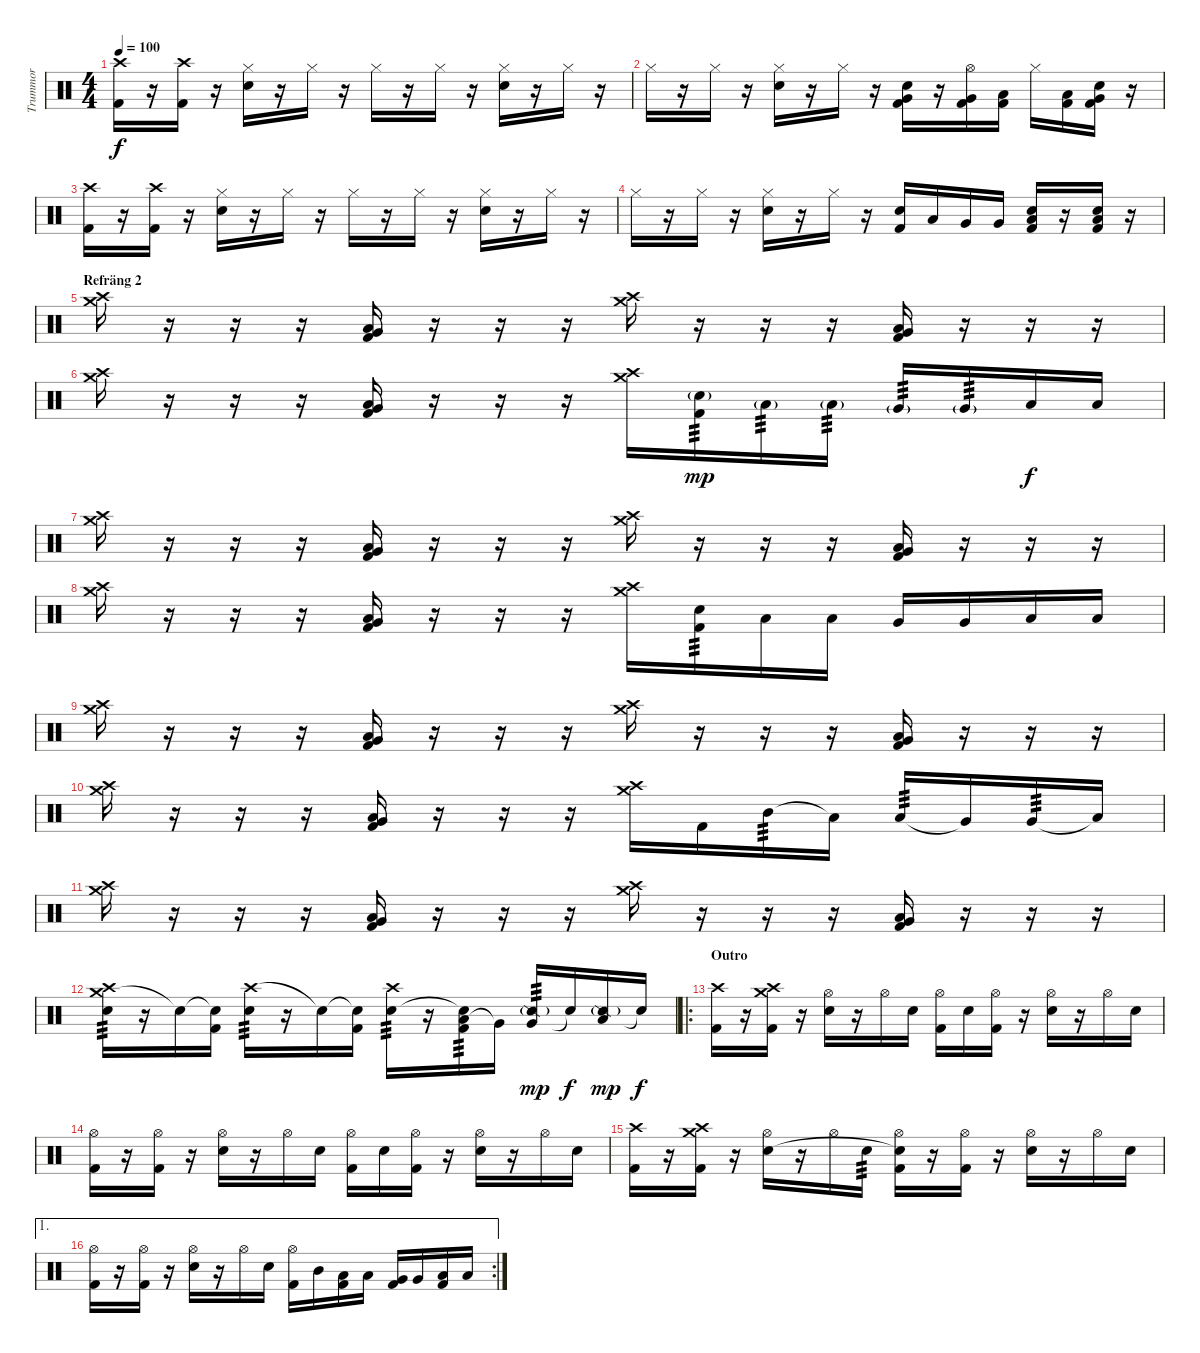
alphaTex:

\track ("Trummor" "Trummor") {instrument percussion}
\staff {score}
\articulation defaults
\ts (4 4)
\tempo 100
\clef neutral
\ks c
("Crash high (hit)" "Kick (hit) 2").16{dy f} r.16 ("Crash high (hit)" "Kick (hit) 2").16 r.16 ("Hi-Hat (closed)" "Snare (hit) 2").16 r.16 "Hi-Hat (closed)".16 r.16 "Hi-Hat (closed)".16 r.16 "Hi-Hat (closed)".16 r.16 ("Hi-Hat (closed)" "Snare (hit) 2").16 r.16 "Hi-Hat (closed)".16 r.16 |
"Hi-Hat (closed)".16 r.16 "Hi-Hat (closed)".16 r.16 ("Hi-Hat (closed)" "Snare (hit) 2").16 r.16 "Hi-Hat (closed)".16 r.16 ("Snare (hit) 2" "Very Low Tom (hit)" "Kick (hit) 2").16 r.16 ("Hi-Hat (open)" "Very Low Tom (hit)" "Kick (hit) 2").16 ("Low Floor Tom (hit)" "Kick (hit) 2").16 "Hi-Hat (closed)".16 ("Low Floor Tom (hit)" "Kick (hit) 2").16 ("Snare (hit) 2" "Very Low Tom (hit)" "Kick (hit) 2").16 r.16 |
("Crash high (hit)" "Kick (hit) 2").16 r.16 ("Crash high (hit)" "Kick (hit) 2").16 r.16 ("Hi-Hat (closed)" "Snare (hit) 2").16 r.16 "Hi-Hat (closed)".16 r.16 "Hi-Hat (closed)".16 r.16 "Hi-Hat (closed)".16 r.16 ("Hi-Hat (closed)" "Snare (hit) 2").16 r.16 "Hi-Hat (closed)".16 r.16 |
"Hi-Hat (closed)".16 r.16 "Hi-Hat (closed)".16 r.16 ("Hi-Hat (closed)" "Snare (hit) 2").16 r.16 "Hi-Hat (closed)".16 r.16 ("Snare (hit) 2" "Kick (hit) 2").16 "Low Tom (hit)".16 "Very Low Tom (hit)".16 "Very Low Tom (hit)".16 ("Snare (hit) 2" "Low Floor Tom (hit)" "Kick (hit) 2").16 r.16 ("Snare (hit) 2" "Low Floor Tom (hit)" "Kick (hit) 2").16 r.16 |
\section ("" "Refräng 2")
("Crash medium (hit)" "Crash high (hit)").16 r.16 r.16 r.16 ("Very Low Tom (hit)" "Low Floor Tom (hit)" "Kick (hit) 2").16 r.16 r.16 r.16 ("Crash medium (hit)" "Crash high (hit)").16 r.16 r.16 r.16 ("Very Low Tom (hit)" "Low Floor Tom (hit)" "Kick (hit) 2").16 r.16 r.16 r.16 |
("Crash medium (hit)" "Crash high (hit)").16 r.16 r.16 r.16 ("Very Low Tom (hit)" "Low Floor Tom (hit)" "Kick (hit) 2").16 r.16 r.16 r.16 ("Crash medium (hit)" "Crash high (hit)").16 ("Snare (hit) 2"{g} "Kick (hit) 2").16{tp 3 dy mp} "Low Tom (hit)"{g}.16{tp 3} "Low Tom (hit)"{g}.16{tp 3} "Very Low Tom (hit)"{g}.16{tp 3} "Very Low Tom (hit)"{g}.16{tp 3} "Low Floor Tom (hit)".16{dy f} "Low Floor Tom (hit)".16 |
("Crash medium (hit)" "Crash high (hit)").16 r.16 r.16 r.16 ("Very Low Tom (hit)" "Low Floor Tom (hit)" "Kick (hit) 2").16 r.16 r.16 r.16 ("Crash medium (hit)" "Crash high (hit)").16 r.16 r.16 r.16 ("Very Low Tom (hit)" "Low Floor Tom (hit)" "Kick (hit) 2").16 r.16 r.16 r.16 |
("Crash medium (hit)" "Crash high (hit)").16 r.16 r.16 r.16 ("Very Low Tom (hit)" "Low Floor Tom (hit)" "Kick (hit) 2").16 r.16 r.16 r.16 ("Crash medium (hit)" "Crash high (hit)").16 ("Snare (hit) 2" "Kick (hit) 2").16{tp 3} "Low Tom (hit)".16 "Low Tom (hit)".16 "Very Low Tom (hit)".16 "Very Low Tom (hit)".16 "Low Floor Tom (hit)".16 "Low Floor Tom (hit)".16 |
("Crash medium (hit)" "Crash high (hit)").16 r.16 r.16 r.16 ("Very Low Tom (hit)" "Low Floor Tom (hit)" "Kick (hit) 2").16 r.16 r.16 r.16 ("Crash medium (hit)" "Crash high (hit)").16 r.16 r.16 r.16 ("Very Low Tom (hit)" "Low Floor Tom (hit)" "Kick (hit) 2").16 r.16 r.16 r.16 |
("Crash medium (hit)" "Crash high (hit)").16 r.16 r.16 r.16 ("Very Low Tom (hit)" "Low Floor Tom (hit)" "Kick (hit) 2").16 r.16 r.16 r.16 ("Crash medium (hit)" "Crash high (hit)").16 "Kick (hit) 2".16 "Mid Tom (hit)".16{tp 3} "Low Tom (hit)"{t}.16 "Low Tom (hit)".16{tp 3} "Very Low Tom (hit)"{t}.16 "Very Low Tom (hit)".16{tp 3} "Low Floor Tom (hit)"{t}.16 |
("Crash medium (hit)" "Crash high (hit)").16 r.16 r.16 r.16 ("Very Low Tom (hit)" "Low Floor Tom (hit)" "Kick (hit) 2").16 r.16 r.16 r.16 ("Crash medium (hit)" "Crash high (hit)").16 r.16 r.16 r.16 ("Very Low Tom (hit)" "Low Floor Tom (hit)" "Kick (hit) 2").16 r.16 r.16 r.16 |
("Crash medium (hit)" "Crash high (hit)" "Snare (hit) 2").16{tp 3} r.16 "Snare (hit)"{t}.16 ("Snare (hit) 2"{t} "Kick (hit) 2").16 ("Crash high (hit)" "Snare (hit) 2").16{tp 3} r.16 "Snare (hit) 2"{t}.16 ("Snare (hit)"{t} "Kick (hit) 2").16 ("Crash high (hit)" "Snare (hit) 2").16{tp 3} r.16 ("Low Tom (hit)" "Snare (hit)"{t} "Kick (hit) 2").16{tp 3} "Very Low Tom (hit)"{t}.16 ("Very Low Tom (hit)" "Snare (side stick) 2"{g}).16{tp 3 dy mp} "Snare (hit)"{t}.16{dy f} ("Low Floor Tom (hit)" "Snare (side stick) 2"{g}).16{dy mp} "Snare (hit)"{t}.16{dy f} |
\ro
\section ("" "Outro")
("Crash high (hit)" "Kick (hit) 2").16 r.16 ("Crash medium (hit)" "Crash high (hit)" "Kick (hit) 2").16 r.16 ("Hi-Hat (open)" "Snare (hit) 2").16 r.16 "Hi-Hat (open)".16 "Snare (hit) 2".16 ("Hi-Hat (open)" "Kick (hit) 2").16 "Snare (hit) 2".16 ("Hi-Hat (open)" "Kick (hit) 2").16 r.16 ("Hi-Hat (open)" "Snare (hit) 2").16 r.16 "Hi-Hat (open)".16 "Snare (hit) 2".16 |
("Hi-Hat (open)" "Kick (hit) 2").16 r.16 ("Hi-Hat (open)" "Kick (hit) 2").16 r.16 ("Hi-Hat (open)" "Snare (hit) 2").16 r.16 "Hi-Hat (open)".16 "Snare (hit) 2".16 ("Hi-Hat (open)" "Kick (hit) 2").16 "Snare (hit) 2".16 ("Hi-Hat (open)" "Kick (hit) 2").16 r.16 ("Hi-Hat (open)" "Snare (hit) 2").16 r.16 "Hi-Hat (open)".16 "Snare (hit) 2".16 |
("Crash high (hit)" "Kick (hit) 2").16 r.16 ("Crash medium (hit)" "Crash high (hit)" "Kick (hit) 2").16 r.16 ("Hi-Hat (open)" "Snare (hit) 2").16 r.16 "Hi-Hat (open)".16 "Snare (hit) 2".16{tp 3} ("Hi-Hat (open)" "Snare (hit)"{t} "Kick (hit) 2").16 r.16 ("Hi-Hat (open)" "Kick (hit) 2").16 r.16 ("Hi-Hat (open)" "Snare (hit) 2").16 r.16 "Hi-Hat (open)".16 "Snare (hit) 2".16 |
\ae 1
\rc 2
("Hi-Hat (open)" "Kick (hit) 2").16 r.16 ("Hi-Hat (open)" "Kick (hit) 2").16 r.16 ("Hi-Hat (open)" "Snare (hit) 2").16 r.16 "Hi-Hat (open)".16 "Snare (hit) 2".16 ("Hi-Hat (open)" "Kick (hit) 2").16 "Mid Tom (hit)".16 ("Low Tom (hit)" "Kick (hit) 2").16 "Low Tom (hit)".16 ("Very Low Tom (hit)" "Kick (hit) 2").16 "Very Low Tom (hit)".16 ("Low Floor Tom (hit)" "Kick (hit) 2").16 "Low Floor Tom (hit)".16
